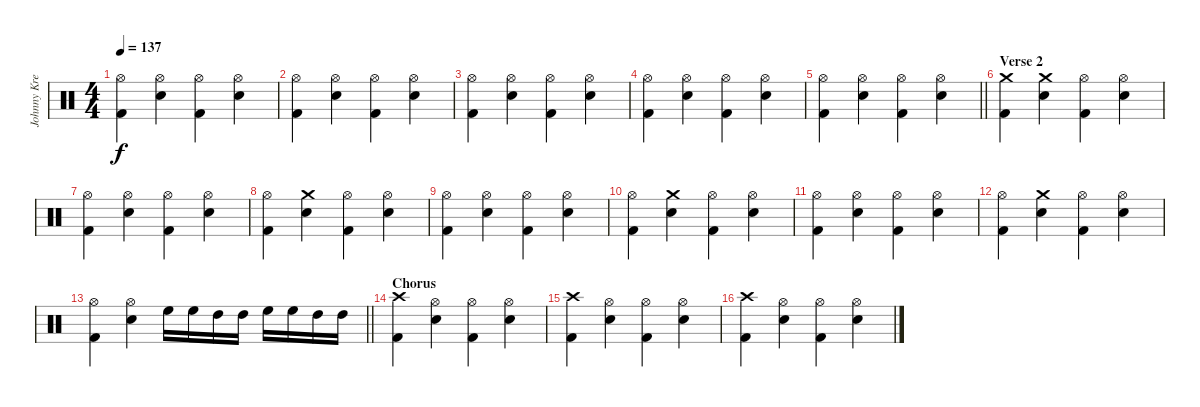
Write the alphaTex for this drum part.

\track ("Johnny Kreis" "Johnny Kre") {instrument percussion}
\staff {score}
\articulation defaults
\ts (4 4)
\tempo 137
\clef neutral
\ks c
("Hi-Hat (open)" "Kick (hit) 2").4{dy f} ("Hi-Hat (open)" "Snare (hit) 2").4 ("Hi-Hat (open)" "Kick (hit) 2").4 ("Hi-Hat (open)" "Snare (hit) 2").4 |
("Hi-Hat (open)" "Kick (hit) 2").4 ("Hi-Hat (open)" "Snare (hit) 2").4 ("Hi-Hat (open)" "Kick (hit) 2").4 ("Hi-Hat (open)" "Snare (hit) 2").4 |
("Hi-Hat (open)" "Kick (hit) 2").4 ("Hi-Hat (open)" "Snare (hit) 2").4 ("Hi-Hat (open)" "Kick (hit) 2").4 ("Hi-Hat (open)" "Snare (hit) 2").4 |
("Hi-Hat (open)" "Kick (hit) 2").4 ("Hi-Hat (open)" "Snare (hit) 2").4 ("Hi-Hat (open)" "Kick (hit) 2").4 ("Hi-Hat (open)" "Snare (hit) 2").4 |
\barLineRight lightlight
("Hi-Hat (open)" "Kick (hit) 2").4 ("Hi-Hat (open)" "Snare (hit) 2").4 ("Hi-Hat (open)" "Kick (hit) 2").4 ("Hi-Hat (open)" "Snare (hit) 2").4 |
\section ("" "Verse 2")
("Crash medium (hit)" "Kick (hit) 2").4 ("Crash medium (hit)" "Snare (hit) 2").4 ("Hi-Hat (open)" "Kick (hit) 2").4 ("Hi-Hat (open)" "Snare (hit) 2").4 |
("Hi-Hat (open)" "Kick (hit) 2").4 ("Hi-Hat (open)" "Snare (hit) 2").4 ("Hi-Hat (open)" "Kick (hit) 2").4 ("Hi-Hat (open)" "Snare (hit) 2").4 |
("Hi-Hat (open)" "Kick (hit) 2").4 ("Crash medium (hit)" "Snare (hit) 2").4 ("Hi-Hat (open)" "Kick (hit) 2").4 ("Hi-Hat (open)" "Snare (hit) 2").4 |
("Hi-Hat (open)" "Kick (hit) 2").4 ("Hi-Hat (open)" "Snare (hit) 2").4 ("Hi-Hat (open)" "Kick (hit) 2").4 ("Hi-Hat (open)" "Snare (hit) 2").4 |
("Hi-Hat (open)" "Kick (hit) 2").4 ("Crash medium (hit)" "Snare (hit) 2").4 ("Hi-Hat (open)" "Kick (hit) 2").4 ("Hi-Hat (open)" "Snare (hit) 2").4 |
("Hi-Hat (open)" "Kick (hit) 2").4 ("Hi-Hat (open)" "Snare (hit) 2").4 ("Hi-Hat (open)" "Kick (hit) 2").4 ("Hi-Hat (open)" "Snare (hit) 2").4 |
("Hi-Hat (open)" "Kick (hit) 2").4 ("Crash medium (hit)" "Snare (hit) 2").4 ("Hi-Hat (open)" "Kick (hit) 2").4 ("Hi-Hat (open)" "Snare (hit) 2").4 |
\barLineRight lightlight
("Hi-Hat (open)" "Kick (hit) 2").4 ("Hi-Hat (open)" "Snare (hit) 2").4 "High Floor Tom (hit)".16 "High Floor Tom (hit)".16 "High Tom (hit)".16 "High Tom (hit)".16 "High Floor Tom (hit)".16 "High Floor Tom (hit)".16 "High Tom (hit)".16 "High Tom (hit)".16 |
\section ("" "Chorus")
("Crash high (hit)" "Kick (hit) 2").4 ("Hi-Hat (open)" "Snare (hit) 2").4 ("Hi-Hat (open)" "Kick (hit) 2").4 ("Hi-Hat (open)" "Snare (hit) 2").4 |
("Crash high (hit)" "Kick (hit) 2").4 ("Hi-Hat (open)" "Snare (hit) 2").4 ("Hi-Hat (open)" "Kick (hit) 2").4 ("Hi-Hat (open)" "Snare (hit) 2").4 |
("Crash high (hit)" "Kick (hit) 2").4 ("Hi-Hat (open)" "Snare (hit) 2").4 ("Hi-Hat (open)" "Kick (hit) 2").4 ("Hi-Hat (open)" "Snare (hit) 2").4
